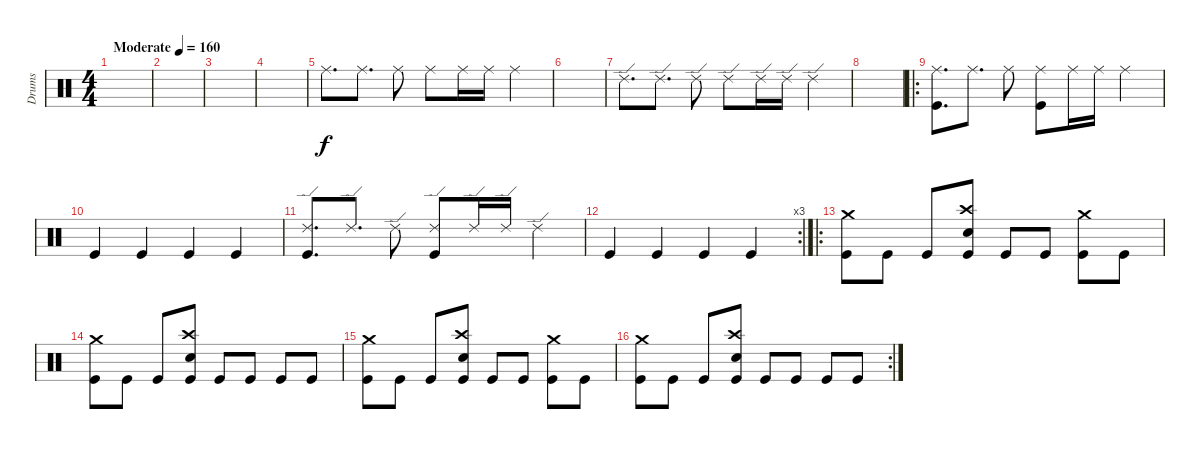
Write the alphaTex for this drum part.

\track ("Drums" "Drums") {instrument percussion}
\staff {score}
\articulation defaults
\ts (4 4)
\tempo (160 "Moderate")
\clef neutral
\ks c
|
|
|
|
"Ride (middle)".8{d} "Ride (middle)".8{d} "Ride (middle)".8 "Ride (middle)".8 "Ride (middle)".16 "Ride (middle)".16 "Ride (middle)".4 |
|
"Ride (edge) 2".8{d} "Ride (edge) 2".8{d} "Ride (edge) 2".8 "Ride (edge) 2".8 "Ride (edge) 2".16 "Ride (edge) 2".16 "Ride (edge) 2".4 |
|
\ro
("Ride (middle)" "Kick (hit)").8{d} "Ride (middle)".8{d} "Ride (middle)".8 ("Ride (middle)" "Kick (hit)").8 "Ride (middle)".16 "Ride (middle)".16 "Ride (middle)".4 |
"Kick (hit)".4 "Kick (hit)".4 "Kick (hit)".4 "Kick (hit)".4 |
("Ride (edge) 2" "Kick (hit)").8{d} "Ride (edge) 2".8{d} "Ride (edge) 2".8 ("Ride (edge) 2" "Kick (hit)").8 "Ride (edge) 2".16 "Ride (edge) 2".16 "Ride (edge) 2".4 |
\rc 3 "Kick (hit)".4 "Kick (hit)".4 "Kick (hit)".4 "Kick (hit)".4
|
\ro
("Crash medium (hit)" "Kick (hit)").8 "Kick (hit)".8 "Kick (hit)".8 ("Crash high (hit)" "Snare (hit) 2" "Kick (hit)").8 "Kick (hit)".8 "Kick (hit)".8 ("Crash medium (hit)" "Kick (hit)").8 "Kick (hit)".8 |
("Crash medium (hit)" "Kick (hit)").8 "Kick (hit)".8 "Kick (hit)".8 ("Crash high (hit)" "Snare (hit) 2" "Kick (hit)").8 "Kick (hit)".8 "Kick (hit)".8 "Kick (hit)".8 "Kick (hit)".8 |
("Crash medium (hit)" "Kick (hit)").8 "Kick (hit)".8 "Kick (hit)".8 ("Crash high (hit)" "Snare (hit) 2" "Kick (hit)").8 "Kick (hit)".8 "Kick (hit)".8 ("Crash medium (hit)" "Kick (hit)").8 "Kick (hit)".8 |
\rc 2
("Crash medium (hit)" "Kick (hit)").8 "Kick (hit)".8 "Kick (hit)".8 ("Crash high (hit)" "Snare (hit) 2" "Kick (hit)").8 "Kick (hit)".8 "Kick (hit)".8 "Kick (hit)".8 "Kick (hit)".8
